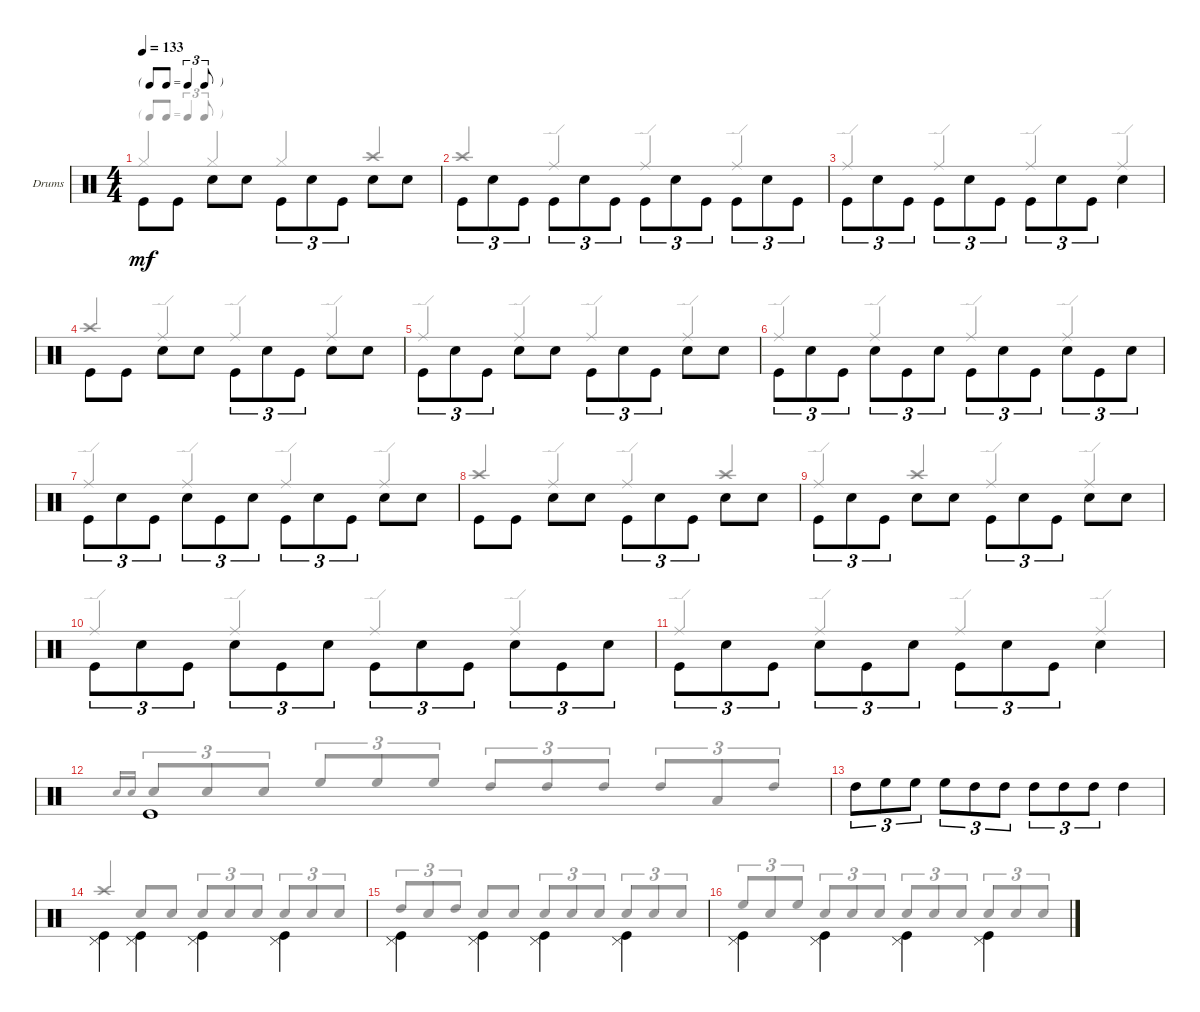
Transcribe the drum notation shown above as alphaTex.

\defaultSystemsLayout 4
\bracketExtendMode groupsimilarinstruments
\firstSystemTrackNameOrientation horizontal
\otherSystemsTrackNameOrientation horizontal
\track ("PETER CRISS" "Drums") {solo instrument percussion}
\staff {score}
\articulation defaults
\voice
\ts (4 4)
\tf triplet8th
\tempo 133
\clef neutral
\ks c "Kick (hit)".8{dy mf beam invert} "Kick (hit)".8 "Snare (hit) 2".8{beam invert} "Snare (hit) 2".8 "Kick (hit)".8{tu (3 2) beam invert} "Snare (hit) 2".8{tu (3 2)} "Kick (hit)".8{tu (3 2)} "Snare (hit) 2".8{beam invert} "Snare (hit) 2".8
|
"Kick (hit)".8{tu (3 2) beam invert} "Snare (hit) 2".8{tu (3 2)} "Kick (hit)".8{tu (3 2)} "Kick (hit)".8{tu (3 2) beam invert} "Snare (hit) 2".8{tu (3 2)} "Kick (hit)".8{tu (3 2)} "Kick (hit)".8{tu (3 2) beam invert} "Snare (hit) 2".8{tu (3 2)} "Kick (hit)".8{tu (3 2)} "Kick (hit)".8{tu (3 2) beam invert} "Snare (hit) 2".8{tu (3 2)} "Kick (hit)".8{tu (3 2)} |
"Kick (hit)".8{tu (3 2) beam invert} "Snare (hit) 2".8{tu (3 2)} "Kick (hit)".8{tu (3 2)} "Kick (hit)".8{tu (3 2) beam invert} "Snare (hit) 2".8{tu (3 2)} "Kick (hit)".8{tu (3 2)} "Kick (hit)".8{tu (3 2) beam invert} "Snare (hit) 2".8{tu (3 2)} "Kick (hit)".8{tu (3 2)} "Snare (hit) 2".4{beam invert} |
"Kick (hit)".8{beam invert} "Kick (hit)".8 "Snare (hit) 2".8{beam invert} "Snare (hit) 2".8 "Kick (hit)".8{tu (3 2) beam invert} "Snare (hit) 2".8{tu (3 2)} "Kick (hit)".8{tu (3 2)} "Snare (hit) 2".8{beam invert} "Snare (hit) 2".8 |
"Kick (hit)".8{tu (3 2) beam invert} "Snare (hit) 2".8{tu (3 2)} "Kick (hit)".8{tu (3 2)} "Snare (hit) 2".8{beam invert} "Snare (hit) 2".8 "Kick (hit)".8{tu (3 2) beam invert} "Snare (hit) 2".8{tu (3 2)} "Kick (hit)".8{tu (3 2)} "Snare (hit) 2".8{beam invert} "Snare (hit) 2".8 |
"Kick (hit)".8{tu (3 2) beam invert} "Snare (hit) 2".8{tu (3 2)} "Kick (hit)".8{tu (3 2)} "Snare (hit) 2".8{tu (3 2) beam invert} "Kick (hit)".8{tu (3 2)} "Snare (hit) 2".8{tu (3 2)} "Kick (hit)".8{tu (3 2) beam invert} "Snare (hit) 2".8{tu (3 2)} "Kick (hit)".8{tu (3 2)} "Snare (hit) 2".8{tu (3 2) beam invert} "Kick (hit)".8{tu (3 2)} "Snare (hit) 2".8{tu (3 2)} |
"Kick (hit)".8{tu (3 2) beam invert} "Snare (hit) 2".8{tu (3 2)} "Kick (hit)".8{tu (3 2)} "Snare (hit) 2".8{tu (3 2) beam invert} "Kick (hit)".8{tu (3 2)} "Snare (hit) 2".8{tu (3 2)} "Kick (hit)".8{tu (3 2) beam invert} "Snare (hit) 2".8{tu (3 2)} "Kick (hit)".8{tu (3 2)} "Snare (hit) 2".8{beam invert} "Snare (hit) 2".8 |
"Kick (hit)".8{beam invert} "Kick (hit)".8 "Snare (hit) 2".8{beam invert} "Snare (hit) 2".8 "Kick (hit)".8{tu (3 2) beam invert} "Snare (hit) 2".8{tu (3 2)} "Kick (hit)".8{tu (3 2)} "Snare (hit) 2".8{beam invert} "Snare (hit) 2".8 |
"Kick (hit)".8{tu (3 2) beam invert} "Snare (hit) 2".8{tu (3 2)} "Kick (hit)".8{tu (3 2)} "Snare (hit) 2".8{beam invert} "Snare (hit) 2".8 "Kick (hit)".8{tu (3 2) beam invert} "Snare (hit) 2".8{tu (3 2)} "Kick (hit)".8{tu (3 2)} "Snare (hit) 2".8{beam invert} "Snare (hit) 2".8 |
"Kick (hit)".8{tu (3 2) beam invert} "Snare (hit) 2".8{tu (3 2)} "Kick (hit)".8{tu (3 2)} "Snare (hit) 2".8{tu (3 2) beam invert} "Kick (hit)".8{tu (3 2)} "Snare (hit) 2".8{tu (3 2)} "Kick (hit)".8{tu (3 2) beam invert} "Snare (hit) 2".8{tu (3 2)} "Kick (hit)".8{tu (3 2)} "Snare (hit) 2".8{tu (3 2) beam invert} "Kick (hit)".8{tu (3 2)} "Snare (hit) 2".8{tu (3 2)} |
"Kick (hit)".8{tu (3 2) beam invert} "Snare (hit) 2".8{tu (3 2)} "Kick (hit)".8{tu (3 2)} "Snare (hit) 2".8{tu (3 2) beam invert} "Kick (hit)".8{tu (3 2)} "Snare (hit) 2".8{tu (3 2)} "Kick (hit)".8{tu (3 2) beam invert} "Snare (hit) 2".8{tu (3 2)} "Kick (hit)".8{tu (3 2)} "Snare (hit) 2".4{beam invert} |
"Kick (hit)".1 |
"High Tom (hit)".8{tu (3 2)} "High Floor Tom (hit)".8{tu (3 2)} "High Floor Tom (hit)".8{tu (3 2)} "High Floor Tom (hit)".8{tu (3 2)} "High Tom (hit)".8{tu (3 2)} "High Tom (hit)".8{tu (3 2)} "High Tom (hit)".8{tu (3 2)} "High Tom (hit)".8{tu (3 2)} "High Tom (hit)".8{tu (3 2)} "High Tom (hit)".4 |
("Pedal Hi-Hat (hit)" "Kick (hit)").4{beam invert} ("Pedal Hi-Hat (hit)" "Kick (hit)").4{beam invert} ("Pedal Hi-Hat (hit)" "Kick (hit)").4{beam invert} ("Pedal Hi-Hat (hit)" "Kick (hit)").4{beam invert} |
("Pedal Hi-Hat (hit)" "Kick (hit)").4{beam invert} ("Pedal Hi-Hat (hit)" "Kick (hit)").4{beam invert} ("Pedal Hi-Hat (hit)" "Kick (hit)").4{beam invert} ("Pedal Hi-Hat (hit)" "Kick (hit)").4{beam invert} |
("Pedal Hi-Hat (hit)" "Kick (hit)").4{beam invert} ("Pedal Hi-Hat (hit)" "Kick (hit)").4{beam invert} ("Pedal Hi-Hat (hit)" "Kick (hit)").4{beam invert} ("Pedal Hi-Hat (hit)" "Kick (hit)").4{beam invert}
\voice
\clef neutral
\ottava regular
\simile none
\ks c "Hi-Hat (closed)".4{dy mf beam invert} "Hi-Hat (closed)".4{beam invert} "Hi-Hat (closed)".4{beam invert} "Crash high (hit)".4{beam invert}
|
"Crash high (hit)".4{beam invert} "Ride (edge)".4{beam invert} "Ride (edge)".4{beam invert} "Ride (edge)".4{beam invert} |
"Ride (edge)".4{beam invert} "Ride (edge)".4{beam invert} "Ride (edge)".4{beam invert} "Ride (edge)".4{beam invert} |
"Crash high (hit)".4{beam invert} "Ride (edge)".4{beam invert} "Ride (edge)".4{beam invert} "Ride (edge)".4{beam invert} |
"Ride (edge)".4{beam invert} "Ride (edge)".4{beam invert} "Ride (edge)".4{beam invert} "Ride (edge)".4{beam invert} |
"Ride (edge)".4{beam invert} "Ride (edge)".4{beam invert} "Ride (edge)".4{beam invert} "Ride (edge)".4{beam invert} |
"Ride (edge)".4{beam invert} "Ride (edge)".4{beam invert} "Ride (edge)".4{beam invert} "Ride (edge)".4{beam invert} |
"Crash high (hit)".4{beam invert} "Ride (edge)".4{beam invert} "Ride (edge)".4{beam invert} "Crash high (hit)".4{beam invert} |
"Ride (edge)".4{beam invert} "Crash high (hit)".4{beam invert} "Ride (edge)".4{beam invert} "Ride (edge)".4{beam invert} |
"Ride (edge)".4{beam invert} "Ride (edge)".4{beam invert} "Ride (edge)".4{beam invert} "Ride (edge)".4{beam invert} |
"Ride (edge)".4{beam invert} "Ride (edge)".4{beam invert} "Ride (edge)".4{beam invert} "Ride (edge)".4{beam invert} |
"Snare (hit) 2".16{gr onbeat beam invert} "Snare (hit) 2".16{gr onbeat} "Snare (hit) 2".8{tu (3 2) beam invert} "Snare (hit) 2".8{tu (3 2)} "Snare (hit) 2".8{tu (3 2)} "High Floor Tom (hit)".8{tu (3 2) beam invert} "High Floor Tom (hit)".8{tu (3 2)} "High Floor Tom (hit)".8{tu (3 2)} "High Tom (hit)".8{tu (3 2) beam invert} "High Tom (hit)".8{tu (3 2)} "High Tom (hit)".8{tu (3 2)} "High Tom (hit)".8{tu (3 2) beam invert} "Low Tom (hit)".8{tu (3 2)} "High Tom (hit)".8{tu (3 2)} |
|
"Crash high (hit)".4{beam invert} "Snare (hit) 2".8{beam invert} "Snare (hit) 2".8 "Snare (hit) 2".8{tu (3 2) beam invert} "Snare (hit) 2".8{tu (3 2)} "Snare (hit) 2".8{tu (3 2)} "Snare (hit) 2".8{tu (3 2) beam invert} "Snare (hit) 2".8{tu (3 2)} "Snare (hit) 2".8{tu (3 2)} |
"High Tom (hit)".8{tu (3 2) beam invert} "Snare (hit) 2".8{tu (3 2)} "High Tom (hit)".8{tu (3 2)} "Snare (hit) 2".8{beam invert} "Snare (hit) 2".8 "Snare (hit) 2".8{tu (3 2)} "Snare (hit) 2".8{tu (3 2) beam invert} "Snare (hit) 2".8{tu (3 2)} "Snare (hit) 2".8{tu (3 2)} "Snare (hit) 2".8{tu (3 2) beam invert} "Snare (hit) 2".8{tu (3 2)} |
"High Floor Tom (hit)".8{tu (3 2) beam invert} "Snare (hit) 2".8{tu (3 2)} "High Floor Tom (hit)".8{tu (3 2)} "Snare (hit) 2".8{tu (3 2) beam invert} "Snare (hit) 2".8{tu (3 2)} "Snare (hit) 2".8{tu (3 2)} "Snare (hit) 2".8{tu (3 2) beam invert} "Snare (hit) 2".8{tu (3 2)} "Snare (hit) 2".8{tu (3 2)} "Snare (hit) 2".8{tu (3 2) beam invert} "Snare (hit) 2".8{tu (3 2)} "Snare (hit) 2".8{tu (3 2)}
